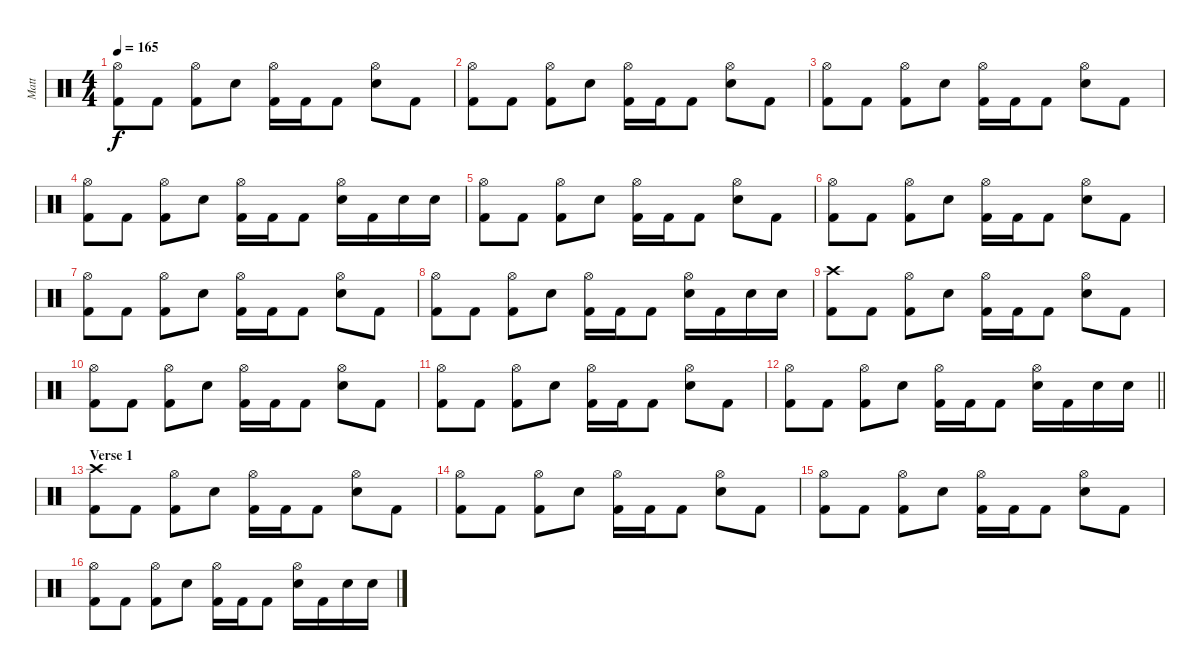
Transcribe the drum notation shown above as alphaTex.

\track ("Matt" "Matt") {instrument percussion}
\staff {score}
\articulation defaults
\ts (4 4)
\tempo 165
\clef neutral
\ks c
("Hi-Hat (open)" "Kick (hit) 2").8{dy f} "Kick (hit) 2".8 ("Hi-Hat (open)" "Kick (hit) 2").8 "Electric Snare (hit)".8 ("Hi-Hat (open)" "Kick (hit) 2").16 "Kick (hit) 2".16 "Kick (hit) 2".8 ("Hi-Hat (open)" "Electric Snare (hit)").8 "Kick (hit) 2".8 |
("Hi-Hat (open)" "Kick (hit) 2").8 "Kick (hit) 2".8 ("Hi-Hat (open)" "Kick (hit) 2").8 "Electric Snare (hit)".8 ("Hi-Hat (open)" "Kick (hit) 2").16 "Kick (hit) 2".16 "Kick (hit) 2".8 ("Hi-Hat (open)" "Electric Snare (hit)").8 "Kick (hit) 2".8 |
("Hi-Hat (open)" "Kick (hit) 2").8 "Kick (hit) 2".8 ("Hi-Hat (open)" "Kick (hit) 2").8 "Electric Snare (hit)".8 ("Hi-Hat (open)" "Kick (hit) 2").16 "Kick (hit) 2".16 "Kick (hit) 2".8 ("Hi-Hat (open)" "Electric Snare (hit)").8 "Kick (hit) 2".8 |
("Hi-Hat (open)" "Kick (hit) 2").8 "Kick (hit) 2".8 ("Hi-Hat (open)" "Kick (hit) 2").8 "Electric Snare (hit)".8 ("Hi-Hat (open)" "Kick (hit) 2").16 "Kick (hit) 2".16 "Kick (hit) 2".8 ("Hi-Hat (open)" "Electric Snare (hit)").16 "Kick (hit) 2".16 "Electric Snare (hit)".16 "Electric Snare (hit)".16 |
("Hi-Hat (open)" "Kick (hit) 2").8 "Kick (hit) 2".8 ("Hi-Hat (open)" "Kick (hit) 2").8 "Electric Snare (hit)".8 ("Hi-Hat (open)" "Kick (hit) 2").16 "Kick (hit) 2".16 "Kick (hit) 2".8 ("Hi-Hat (open)" "Electric Snare (hit)").8 "Kick (hit) 2".8 |
("Hi-Hat (open)" "Kick (hit) 2").8 "Kick (hit) 2".8 ("Hi-Hat (open)" "Kick (hit) 2").8 "Electric Snare (hit)".8 ("Hi-Hat (open)" "Kick (hit) 2").16 "Kick (hit) 2".16 "Kick (hit) 2".8 ("Hi-Hat (open)" "Electric Snare (hit)").8 "Kick (hit) 2".8 |
("Hi-Hat (open)" "Kick (hit) 2").8 "Kick (hit) 2".8 ("Hi-Hat (open)" "Kick (hit) 2").8 "Electric Snare (hit)".8 ("Hi-Hat (open)" "Kick (hit) 2").16 "Kick (hit) 2".16 "Kick (hit) 2".8 ("Hi-Hat (open)" "Electric Snare (hit)").8 "Kick (hit) 2".8 |
("Hi-Hat (open)" "Kick (hit) 2").8 "Kick (hit) 2".8 ("Hi-Hat (open)" "Kick (hit) 2").8 "Electric Snare (hit)".8 ("Hi-Hat (open)" "Kick (hit) 2").16 "Kick (hit) 2".16 "Kick (hit) 2".8 ("Hi-Hat (open)" "Electric Snare (hit)").16 "Kick (hit) 2".16 "Electric Snare (hit)".16 "Electric Snare (hit)".16 |
("Crash high (hit)" "Kick (hit) 2").8 "Kick (hit) 2".8 ("Hi-Hat (open)" "Kick (hit) 2").8 "Electric Snare (hit)".8 ("Hi-Hat (open)" "Kick (hit) 2").16 "Kick (hit) 2".16 "Kick (hit) 2".8 ("Hi-Hat (open)" "Electric Snare (hit)").8 "Kick (hit) 2".8 |
("Hi-Hat (open)" "Kick (hit) 2").8 "Kick (hit) 2".8 ("Hi-Hat (open)" "Kick (hit) 2").8 "Electric Snare (hit)".8 ("Hi-Hat (open)" "Kick (hit) 2").16 "Kick (hit) 2".16 "Kick (hit) 2".8 ("Hi-Hat (open)" "Electric Snare (hit)").8 "Kick (hit) 2".8 |
("Hi-Hat (open)" "Kick (hit) 2").8 "Kick (hit) 2".8 ("Hi-Hat (open)" "Kick (hit) 2").8 "Electric Snare (hit)".8 ("Hi-Hat (open)" "Kick (hit) 2").16 "Kick (hit) 2".16 "Kick (hit) 2".8 ("Hi-Hat (open)" "Electric Snare (hit)").8 "Kick (hit) 2".8 |
\barLineRight lightlight
("Hi-Hat (open)" "Kick (hit) 2").8 "Kick (hit) 2".8 ("Hi-Hat (open)" "Kick (hit) 2").8 "Electric Snare (hit)".8 ("Hi-Hat (open)" "Kick (hit) 2").16 "Kick (hit) 2".16 "Kick (hit) 2".8 ("Hi-Hat (open)" "Electric Snare (hit)").16 "Kick (hit) 2".16 "Electric Snare (hit)".16 "Electric Snare (hit)".16 |
\section ("" "Verse 1")
("Crash high (hit)" "Kick (hit) 2").8 "Kick (hit) 2".8 ("Hi-Hat (open)" "Kick (hit) 2").8 "Electric Snare (hit)".8 ("Hi-Hat (open)" "Kick (hit) 2").16 "Kick (hit) 2".16 "Kick (hit) 2".8 ("Hi-Hat (open)" "Electric Snare (hit)").8 "Kick (hit) 2".8 |
("Hi-Hat (open)" "Kick (hit) 2").8 "Kick (hit) 2".8 ("Hi-Hat (open)" "Kick (hit) 2").8 "Electric Snare (hit)".8 ("Hi-Hat (open)" "Kick (hit) 2").16 "Kick (hit) 2".16 "Kick (hit) 2".8 ("Hi-Hat (open)" "Electric Snare (hit)").8 "Kick (hit) 2".8 |
("Hi-Hat (open)" "Kick (hit) 2").8 "Kick (hit) 2".8 ("Hi-Hat (open)" "Kick (hit) 2").8 "Electric Snare (hit)".8 ("Hi-Hat (open)" "Kick (hit) 2").16 "Kick (hit) 2".16 "Kick (hit) 2".8 ("Hi-Hat (open)" "Electric Snare (hit)").8 "Kick (hit) 2".8 |
("Hi-Hat (open)" "Kick (hit) 2").8 "Kick (hit) 2".8 ("Hi-Hat (open)" "Kick (hit) 2").8 "Electric Snare (hit)".8 ("Hi-Hat (open)" "Kick (hit) 2").16 "Kick (hit) 2".16 "Kick (hit) 2".8 ("Hi-Hat (open)" "Electric Snare (hit)").16 "Kick (hit) 2".16 "Electric Snare (hit)".16 "Electric Snare (hit)".16
